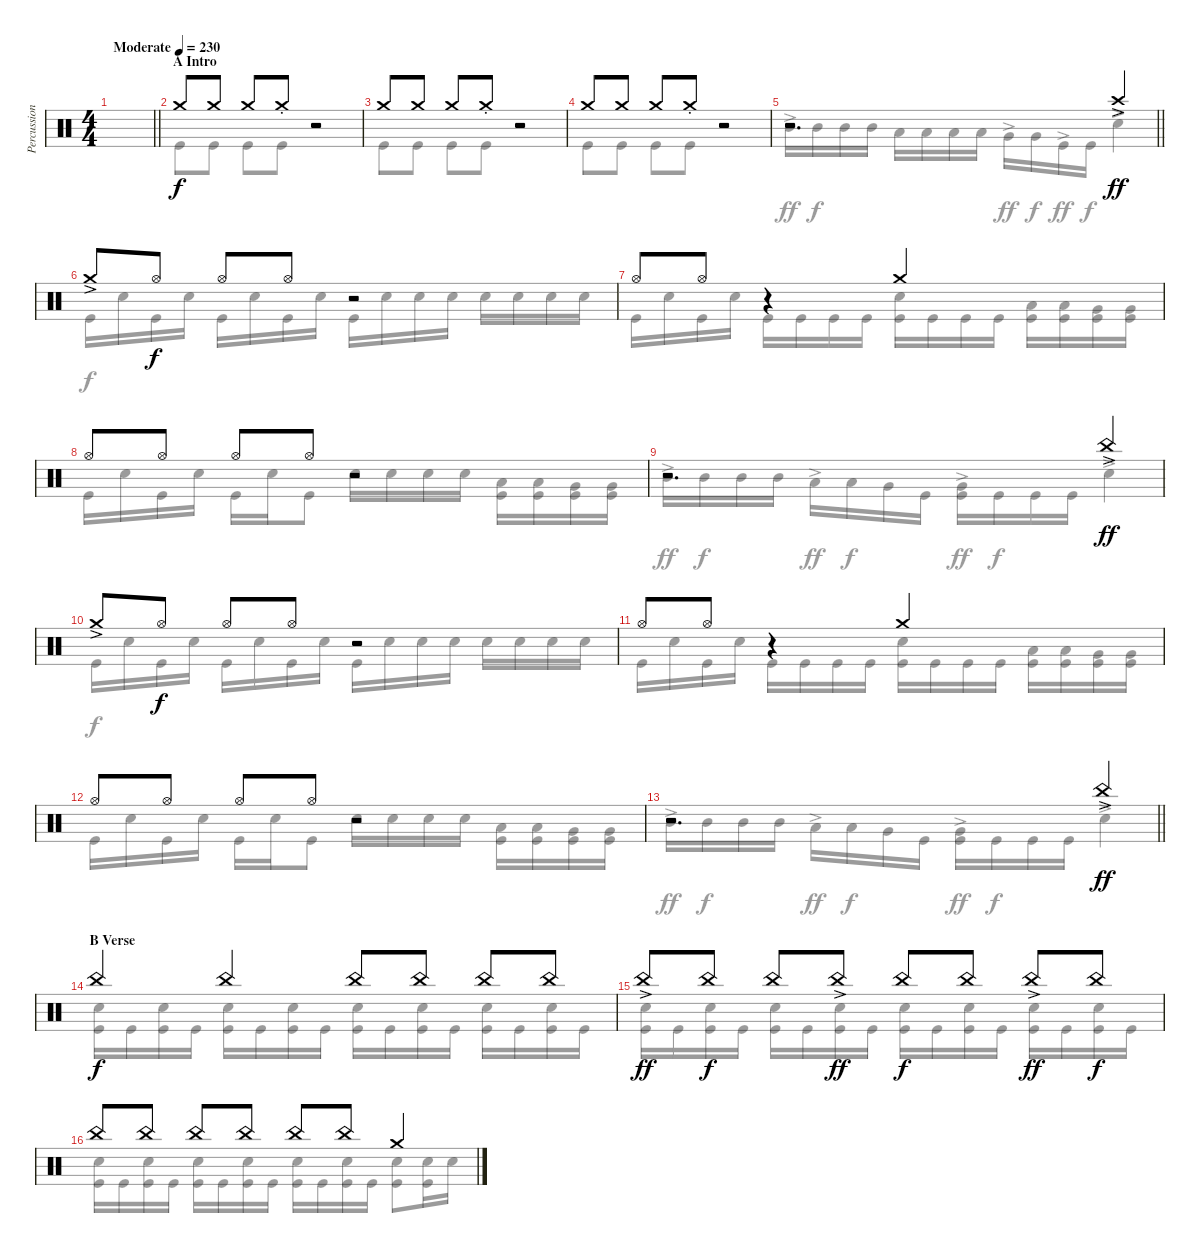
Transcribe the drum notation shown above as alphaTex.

\track ("Percussions" "Percussion") {instrument percussion}
\staff {score}
\articulation defaults
\voice
\ts (4 4)
\tempo (230 "Moderate")
\clef neutral
\barLineRight lightlight
\ks c
|
\section ("" "A Intro")
"Crash medium (hit)".8 "Crash medium (hit)".8 "Crash medium (hit)".8 "Crash medium (hit)"{st}.8 r.2{volume 0} |
"Crash medium (hit)".8{volume 16} "Crash medium (hit)".8 "Crash medium (hit)".8 "Crash medium (hit)"{st}.8 r.2{volume 0} |
"Crash medium (hit)".8{volume 16} "Crash medium (hit)".8 "Crash medium (hit)".8 "Crash medium (hit)"{st}.8 r.2{volume 0} |
\barLineRight lightlight
r.2{d volume 16} "Crash high (hit)"{ac}.4{dy ff} |
\section ("" "")
"Crash medium (hit)"{ac}.8 "Hi-Hat (open)".8{dy f} "Hi-Hat (open)".8 "Hi-Hat (open)".8 r.2 |
"Hi-Hat (open)".8 "Hi-Hat (open)".8 r.4 "Crash medium (hit)".2 |
"Hi-Hat (open)".8 "Hi-Hat (open)".8 "Hi-Hat (open)".8 "Hi-Hat (open)".8 r.2 |
r.2{d} "China (hit)"{ac}.4{dy ff} |
"Crash medium (hit)"{ac}.8 "Hi-Hat (open)".8{dy f} "Hi-Hat (open)".8 "Hi-Hat (open)".8 r.2 |
"Hi-Hat (open)".8 "Hi-Hat (open)".8 r.4 "Crash medium (hit)".2 |
"Hi-Hat (open)".8 "Hi-Hat (open)".8 "Hi-Hat (open)".8 "Hi-Hat (open)".8 r.2 |
\barLineRight lightlight
r.2{d} "China (hit)"{ac}.4{dy ff} |
\section ("" "B Verse")
"China (hit)".4{dy f} "China (hit)".4 "China (hit)".8 "China (hit)".8 "China (hit)".8 "China (hit)".8 |
"China (hit)"{ac}.8{dy ff} "China (hit)".8{dy f} "China (hit)".8 "China (hit)"{ac}.8{dy ff} "China (hit)".8{dy f} "China (hit)".8 "China (hit)"{ac}.8{dy ff} "China (hit)".8{dy f} |
"China (hit)".8 "China (hit)".8 "China (hit)".8 "China (hit)".8 "China (hit)".8 "China (hit)".8 "Crash medium (hit)".4
\voice
\clef neutral
\ottava regular
\simile none
\barLineRight lightlight
\ks c
|
"Kick (hit)".8 "Kick (hit)".8 "Kick (hit)".8 "Kick (hit)".8 r.2 |
"Kick (hit)".8 "Kick (hit)".8 "Kick (hit)".8 "Kick (hit)".8 r.2 |
"Kick (hit)".8 "Kick (hit)".8 "Kick (hit)".8 "Kick (hit)".8 r.2 |
\barLineRight lightlight "Mid Tom (hit)"{ac}.16{dy ff} "Mid Tom (hit)".16{dy f} "Mid Tom (hit)".16 "Mid Tom (hit)".16 "Low Tom (hit)".16 "Low Tom (hit)".16 "Low Tom (hit)".16 "Low Tom (hit)".16 "Very Low Tom (hit)"{ac}.16{dy ff} "Very Low Tom (hit)".16{dy f} "Kick (hit)"{ac}.16{dy ff} "Kick (hit)".16{dy f} "Snare (hit) 2"{ac}.4{dy ff}
|
"Kick (hit)".16{dy f} "Snare (hit) 2".16 "Kick (hit)".16 "Snare (hit) 2".16 "Kick (hit)".16 "Snare (hit) 2".16 "Kick (hit)".16 "Snare (hit) 2".16 "Kick (hit)".16 "Snare (hit) 2".16 "Snare (hit) 2".16 "Snare (hit) 2".16 "Snare (hit) 2".16 "Snare (hit) 2".16 "Snare (hit) 2".16 "Snare (hit) 2".16 |
"Kick (hit)".16 "Snare (hit) 2".16 "Kick (hit)".16 "Snare (hit) 2".16 "Kick (hit)".16 "Kick (hit)".16 "Kick (hit)".16 "Kick (hit)".16 ("Snare (hit) 2" "Kick (hit)").16 "Kick (hit)".16 "Kick (hit)".16 "Kick (hit)".16 ("Low Tom (hit)" "Kick (hit)").16 ("Low Tom (hit)" "Kick (hit)").16 ("Very Low Tom (hit)" "Kick (hit)").16 ("Very Low Tom (hit)" "Kick (hit)").16 |
"Kick (hit)".16 "Snare (hit) 2".16 "Kick (hit)".16 "Snare (hit) 2".16 "Kick (hit)".16 "Snare (hit) 2".16 "Kick (hit)".8 "Snare (hit) 2".16 "Snare (hit) 2".16 "Snare (hit) 2".16 "Snare (hit) 2".16 ("Low Tom (hit)" "Kick (hit)").16 ("Low Tom (hit)" "Kick (hit)").16 ("Very Low Tom (hit)" "Kick (hit)").16 ("Very Low Tom (hit)" "Kick (hit)").16 |
"Mid Tom (hit)"{ac}.16{dy ff} "Mid Tom (hit)".16{dy f} "Mid Tom (hit)".16 "Mid Tom (hit)".16 "Low Tom (hit)"{ac}.16{dy ff} "Low Tom (hit)".16{dy f} "Very Low Tom (hit)".16 "Kick (hit)".16 ("Very Low Tom (hit)"{ac} "Kick (hit)").16{dy ff} "Kick (hit)".16{dy f} "Kick (hit)".16 "Kick (hit)".16 "Snare (hit) 2"{ac}.4{dy ff} |
"Kick (hit)".16{dy f} "Snare (hit) 2".16 "Kick (hit)".16 "Snare (hit) 2".16 "Kick (hit)".16 "Snare (hit) 2".16 "Kick (hit)".16 "Snare (hit) 2".16 "Kick (hit)".16 "Snare (hit) 2".16 "Snare (hit) 2".16 "Snare (hit) 2".16 "Snare (hit) 2".16 "Snare (hit) 2".16 "Snare (hit) 2".16 "Snare (hit) 2".16 |
"Kick (hit)".16 "Snare (hit) 2".16 "Kick (hit)".16 "Snare (hit) 2".16 "Kick (hit)".16 "Kick (hit)".16 "Kick (hit)".16 "Kick (hit)".16 ("Snare (hit) 2" "Kick (hit)").16 "Kick (hit)".16 "Kick (hit)".16 "Kick (hit)".16 ("Low Tom (hit)" "Kick (hit)").16 ("Low Tom (hit)" "Kick (hit)").16 ("Very Low Tom (hit)" "Kick (hit)").16 ("Very Low Tom (hit)" "Kick (hit)").16 |
"Kick (hit)".16 "Snare (hit) 2".16 "Kick (hit)".16 "Snare (hit) 2".16 "Kick (hit)".16 "Snare (hit) 2".16 "Kick (hit)".8 "Snare (hit) 2".16 "Snare (hit) 2".16 "Snare (hit) 2".16 "Snare (hit) 2".16 ("Low Tom (hit)" "Kick (hit)").16 ("Low Tom (hit)" "Kick (hit)").16 ("Very Low Tom (hit)" "Kick (hit)").16 ("Very Low Tom (hit)" "Kick (hit)").16 |
\barLineRight lightlight "Mid Tom (hit)"{ac}.16{dy ff} "Mid Tom (hit)".16{dy f} "Mid Tom (hit)".16 "Mid Tom (hit)".16 "Low Tom (hit)"{ac}.16{dy ff} "Low Tom (hit)".16{dy f} "Very Low Tom (hit)".16 "Kick (hit)".16
("Very Low Tom (hit)"{ac} "Kick (hit)").16{dy ff} "Kick (hit)".16{dy f} "Kick (hit)".16 "Kick (hit)".16 "Snare (hit) 2"{ac}.4{dy ff} |
("Snare (hit) 2" "Kick (hit)").16{dy f} "Kick (hit)".16 ("Snare (hit) 2" "Kick (hit)").16 "Kick (hit)".16 ("Snare (hit) 2" "Kick (hit)").16 "Kick (hit)".16 ("Snare (hit) 2" "Kick (hit)").16 "Kick (hit)".16 ("Snare (hit) 2" "Kick (hit)").16 "Kick (hit)".16 ("Snare (hit) 2" "Kick (hit)").16 "Kick (hit)".16 ("Snare (hit) 2" "Kick (hit)").16 "Kick (hit)".16 ("Snare (hit) 2" "Kick (hit)").16 "Kick (hit)".16 |
("Snare (hit) 2" "Kick (hit)").16 "Kick (hit)".16 ("Snare (hit) 2" "Kick (hit)").16 "Kick (hit)".16 ("Snare (hit) 2" "Kick (hit)").16 "Kick (hit)".16 ("Snare (hit) 2" "Kick (hit)").16 "Kick (hit)".16 ("Snare (hit) 2" "Kick (hit)").16 "Kick (hit)".16 ("Snare (hit) 2" "Kick (hit)").16 "Kick (hit)".16 ("Snare (hit) 2" "Kick (hit)").16 "Kick (hit)".16 ("Snare (hit) 2" "Kick (hit)").16 "Kick (hit)".16 |
("Snare (hit) 2" "Kick (hit)").16 "Kick (hit)".16 ("Snare (hit) 2" "Kick (hit)").16 "Kick (hit)".16 ("Snare (hit) 2" "Kick (hit)").16 "Kick (hit)".16 ("Snare (hit) 2" "Kick (hit)").16 "Kick (hit)".16 ("Snare (hit) 2" "Kick (hit)").16 "Kick (hit)".16 ("Snare (hit) 2" "Kick (hit)").16 "Kick (hit)".16 ("Snare (hit) 2" "Kick (hit)").8 ("Snare (hit) 2" "Kick (hit)").16 "Snare (hit) 2".16
